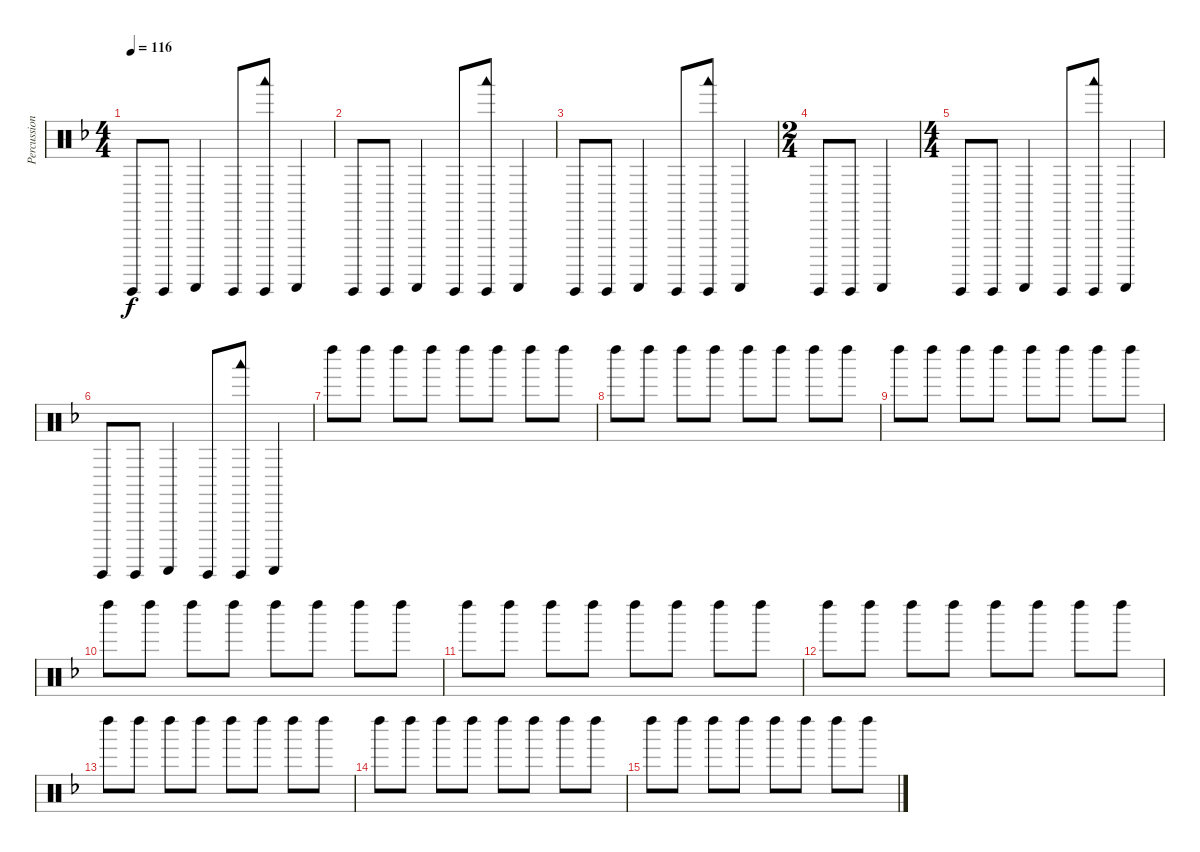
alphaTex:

\track ("Percussions" "Percussion") {instrument percussion}
\staff {score}
\articulation defaults
\ts (4 4)
\tempo 116
\clef neutral
\ks dminor "Guiro (hit)".8{dy f} "Guiro (hit)".8 "Guiro (scrap-return)".4 "Guiro (hit)".8
("Guiro (hit)" "Woodblock low (hit)").8 "Guiro (scrap-return)".4 |
"Guiro (hit)".8 "Guiro (hit)".8 "Guiro (scrap-return)".4 "Guiro (hit)".8 ("Guiro (hit)" "Woodblock low (hit)").8 "Guiro (scrap-return)".4 |
"Guiro (hit)".8 "Guiro (hit)".8 "Guiro (scrap-return)".4 "Guiro (hit)".8 ("Guiro (hit)" "Woodblock low (hit)").8 "Guiro (scrap-return)".4 |
\ts (2 4)
"Guiro (hit)".8 "Guiro (hit)".8 "Guiro (scrap-return)".4 |
\ts (4 4)
"Guiro (hit)".8 "Guiro (hit)".8 "Guiro (scrap-return)".4 "Guiro (hit)".8 ("Guiro (hit)" "Woodblock low (hit)").8 "Guiro (scrap-return)".4 |
"Guiro (hit)".8 "Guiro (hit)".8 "Guiro (scrap-return)".4 "Guiro (hit)".8 ("Guiro (hit)" "Woodblock low (hit)").8 "Guiro (scrap-return)".4 |
"Left Maraca (hit)".8 "Left Maraca (hit)".8 "Left Maraca (hit)".8 "Left Maraca (hit)".8 "Left Maraca (hit)".8 "Left Maraca (hit)".8 "Left Maraca (hit)".8 "Left Maraca (hit)".8 |
"Left Maraca (hit)".8 "Left Maraca (hit)".8 "Left Maraca (hit)".8 "Left Maraca (hit)".8 "Left Maraca (hit)".8 "Left Maraca (hit)".8 "Left Maraca (hit)".8 "Left Maraca (hit)".8 |
"Left Maraca (hit)".8 "Left Maraca (hit)".8 "Left Maraca (hit)".8 "Left Maraca (hit)".8 "Left Maraca (hit)".8 "Left Maraca (hit)".8 "Left Maraca (hit)".8 "Left Maraca (hit)".8 |
"Left Maraca (hit)".8 "Left Maraca (hit)".8 "Left Maraca (hit)".8 "Left Maraca (hit)".8 "Left Maraca (hit)".8 "Left Maraca (hit)".8 "Left Maraca (hit)".8 "Left Maraca (hit)".8 |
"Left Maraca (hit)".8 "Left Maraca (hit)".8 "Left Maraca (hit)".8 "Left Maraca (hit)".8 "Left Maraca (hit)".8 "Left Maraca (hit)".8 "Left Maraca (hit)".8 "Left Maraca (hit)".8 |
"Left Maraca (hit)".8 "Left Maraca (hit)".8 "Left Maraca (hit)".8 "Left Maraca (hit)".8 "Left Maraca (hit)".8 "Left Maraca (hit)".8 "Left Maraca (hit)".8 "Left Maraca (hit)".8 |
"Left Maraca (hit)".8 "Left Maraca (hit)".8 "Left Maraca (hit)".8 "Left Maraca (hit)".8 "Left Maraca (hit)".8 "Left Maraca (hit)".8 "Left Maraca (hit)".8 "Left Maraca (hit)".8 |
"Left Maraca (hit)".8 "Left Maraca (hit)".8 "Left Maraca (hit)".8 "Left Maraca (hit)".8 "Left Maraca (hit)".8 "Left Maraca (hit)".8 "Left Maraca (hit)".8 "Left Maraca (hit)".8 |
"Left Maraca (hit)".8 "Left Maraca (hit)".8 "Left Maraca (hit)".8 "Left Maraca (hit)".8 "Left Maraca (hit)".8 "Left Maraca (hit)".8 "Left Maraca (hit)".8 "Left Maraca (hit)".8
